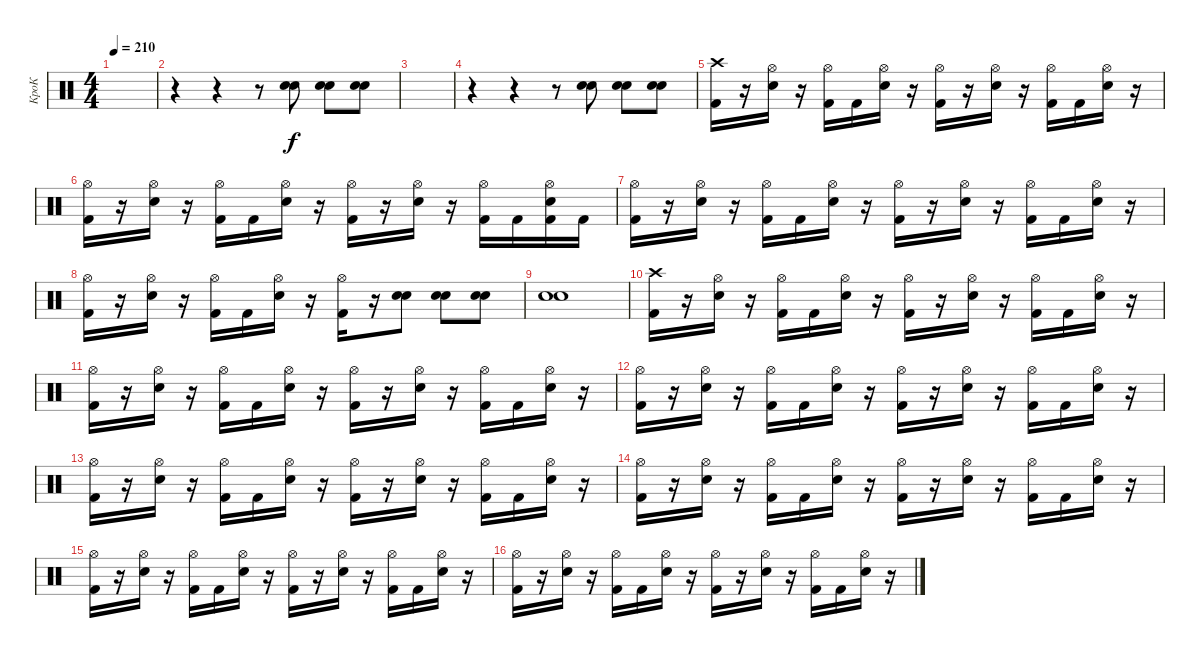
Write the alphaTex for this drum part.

\track ("КроК" "КроК") {instrument percussion}
\staff {score}
\articulation defaults
\ts (4 4)
\tempo 210
\clef neutral
\ks c
|
r.4 r.4 r.8 ("Electric Snare (hit)" "Electric Snare (hit)").8 ("Electric Snare (hit)" "Electric Snare (hit)").8 ("Electric Snare (hit)" "Electric Snare (hit)").8 |
|
r.4 r.4 r.8 ("Electric Snare (hit)" "Electric Snare (hit)").8 ("Electric Snare (hit)" "Electric Snare (hit)").8 ("Electric Snare (hit)" "Electric Snare (hit)").8 |
("Crash high (hit)" "Kick (hit) 2").16 r.16 ("Hi-Hat (open)" "Electric Snare (hit)").16 r.16 ("Hi-Hat (open)" "Kick (hit) 2").16 "Kick (hit) 2".16 ("Hi-Hat (open)" "Electric Snare (hit)").16 r.16 ("Hi-Hat (open)" "Kick (hit) 2").16 r.16 ("Hi-Hat (open)" "Electric Snare (hit)").16 r.16 ("Hi-Hat (open)" "Kick (hit) 2").16 "Kick (hit) 2".16 ("Hi-Hat (open)" "Electric Snare (hit)").16 r.16 |
("Hi-Hat (open)" "Kick (hit) 2").16 r.16 ("Hi-Hat (open)" "Electric Snare (hit)").16 r.16 ("Hi-Hat (open)" "Kick (hit) 2").16 "Kick (hit) 2".16 ("Hi-Hat (open)" "Electric Snare (hit)").16 r.16 ("Hi-Hat (open)" "Kick (hit) 2").16 r.16 ("Hi-Hat (open)" "Electric Snare (hit)").16 r.16 ("Hi-Hat (open)" "Kick (hit) 2").16 "Kick (hit) 2".16 ("Hi-Hat (open)" "Electric Snare (hit)" "Kick (hit) 2").16 "Kick (hit) 2".16 |
("Hi-Hat (open)" "Kick (hit) 2").16 r.16 ("Hi-Hat (open)" "Electric Snare (hit)").16 r.16 ("Hi-Hat (open)" "Kick (hit) 2").16 "Kick (hit) 2".16 ("Hi-Hat (open)" "Electric Snare (hit)").16 r.16 ("Hi-Hat (open)" "Kick (hit) 2").16 r.16 ("Hi-Hat (open)" "Electric Snare (hit)").16 r.16 ("Hi-Hat (open)" "Kick (hit) 2").16 "Kick (hit) 2".16 ("Hi-Hat (open)" "Electric Snare (hit)").16 r.16 |
("Hi-Hat (open)" "Kick (hit) 2").16 r.16 ("Hi-Hat (open)" "Electric Snare (hit)").16 r.16 ("Hi-Hat (open)" "Kick (hit) 2").16 "Kick (hit) 2".16 ("Hi-Hat (open)" "Electric Snare (hit)").16 r.16 ("Hi-Hat (open)" "Kick (hit) 2").16 r.16 ("Electric Snare (hit)" "Electric Snare (hit)").8 ("Electric Snare (hit)" "Electric Snare (hit)").8 ("Electric Snare (hit)" "Electric Snare (hit)").8 |
("Electric Snare (hit)" "Electric Snare (hit)").1 |
("Crash high (hit)" "Kick (hit) 2").16 r.16 ("Hi-Hat (open)" "Electric Snare (hit)").16 r.16 ("Hi-Hat (open)" "Kick (hit) 2").16 "Kick (hit) 2".16 ("Hi-Hat (open)" "Electric Snare (hit)").16 r.16 ("Hi-Hat (open)" "Kick (hit) 2").16 r.16 ("Hi-Hat (open)" "Electric Snare (hit)").16 r.16 ("Hi-Hat (open)" "Kick (hit) 2").16 "Kick (hit) 2".16 ("Hi-Hat (open)" "Electric Snare (hit)").16 r.16 |
("Hi-Hat (open)" "Kick (hit) 2").16 r.16 ("Hi-Hat (open)" "Electric Snare (hit)").16 r.16 ("Hi-Hat (open)" "Kick (hit) 2").16 "Kick (hit) 2".16 ("Hi-Hat (open)" "Electric Snare (hit)").16 r.16 ("Hi-Hat (open)" "Kick (hit) 2").16 r.16 ("Hi-Hat (open)" "Electric Snare (hit)").16 r.16 ("Hi-Hat (open)" "Kick (hit) 2").16 "Kick (hit) 2".16 ("Hi-Hat (open)" "Electric Snare (hit)").16 r.16 |
("Hi-Hat (open)" "Kick (hit) 2").16 r.16 ("Hi-Hat (open)" "Electric Snare (hit)").16 r.16 ("Hi-Hat (open)" "Kick (hit) 2").16 "Kick (hit) 2".16 ("Hi-Hat (open)" "Electric Snare (hit)").16 r.16 ("Hi-Hat (open)" "Kick (hit) 2").16 r.16 ("Hi-Hat (open)" "Electric Snare (hit)").16 r.16 ("Hi-Hat (open)" "Kick (hit) 2").16 "Kick (hit) 2".16 ("Hi-Hat (open)" "Electric Snare (hit)").16 r.16 |
("Hi-Hat (open)" "Kick (hit) 2").16 r.16 ("Hi-Hat (open)" "Electric Snare (hit)").16 r.16 ("Hi-Hat (open)" "Kick (hit) 2").16 "Kick (hit) 2".16 ("Hi-Hat (open)" "Electric Snare (hit)").16 r.16 ("Hi-Hat (open)" "Kick (hit) 2").16 r.16 ("Hi-Hat (open)" "Electric Snare (hit)").16 r.16 ("Hi-Hat (open)" "Kick (hit) 2").16 "Kick (hit) 2".16 ("Hi-Hat (open)" "Electric Snare (hit)").16 r.16 |
("Hi-Hat (open)" "Kick (hit) 2").16 r.16 ("Hi-Hat (open)" "Electric Snare (hit)").16 r.16 ("Hi-Hat (open)" "Kick (hit) 2").16 "Kick (hit) 2".16 ("Hi-Hat (open)" "Electric Snare (hit)").16 r.16 ("Hi-Hat (open)" "Kick (hit) 2").16 r.16 ("Hi-Hat (open)" "Electric Snare (hit)").16 r.16 ("Hi-Hat (open)" "Kick (hit) 2").16 "Kick (hit) 2".16 ("Hi-Hat (open)" "Electric Snare (hit)").16 r.16 |
("Hi-Hat (open)" "Kick (hit) 2").16 r.16 ("Hi-Hat (open)" "Electric Snare (hit)").16 r.16 ("Hi-Hat (open)" "Kick (hit) 2").16 "Kick (hit) 2".16 ("Hi-Hat (open)" "Electric Snare (hit)").16 r.16 ("Hi-Hat (open)" "Kick (hit) 2").16 r.16 ("Hi-Hat (open)" "Electric Snare (hit)").16 r.16 ("Hi-Hat (open)" "Kick (hit) 2").16 "Kick (hit) 2".16 ("Hi-Hat (open)" "Electric Snare (hit)").16 r.16 |
("Hi-Hat (open)" "Kick (hit) 2").16 r.16 ("Hi-Hat (open)" "Electric Snare (hit)").16 r.16 ("Hi-Hat (open)" "Kick (hit) 2").16 "Kick (hit) 2".16 ("Hi-Hat (open)" "Electric Snare (hit)").16 r.16 ("Hi-Hat (open)" "Kick (hit) 2").16 r.16 ("Hi-Hat (open)" "Electric Snare (hit)").16 r.16 ("Hi-Hat (open)" "Kick (hit) 2").16 "Kick (hit) 2".16 ("Hi-Hat (open)" "Electric Snare (hit)").16 r.16
